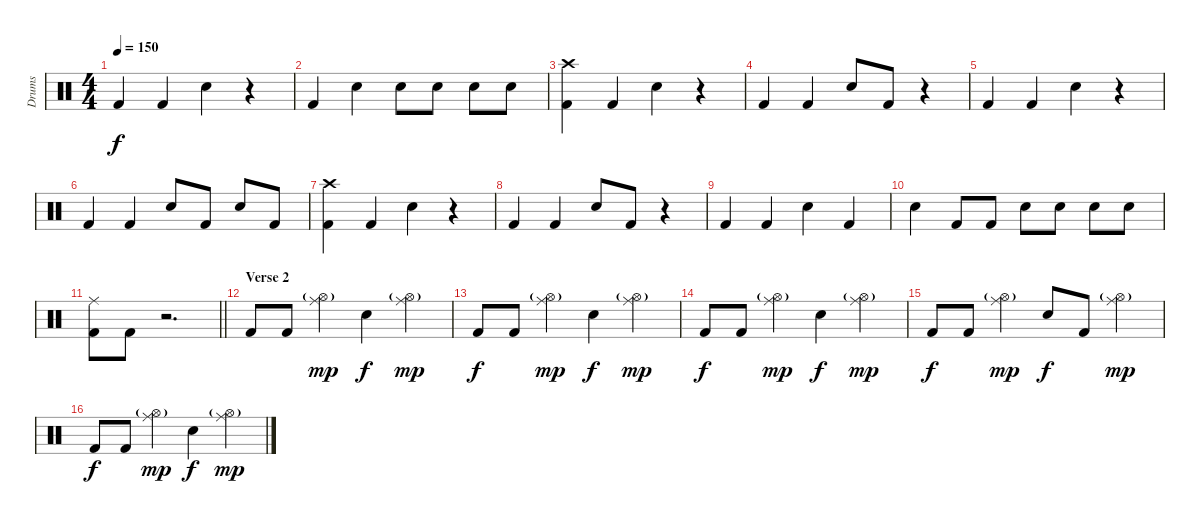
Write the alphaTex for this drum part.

\track ("Drums" "Drums") {instrument percussion bank 1}
\staff {score}
\articulation defaults
\ts (4 4)
\tempo 150
\clef neutral
\ks c "Kick (hit) 2".4{dy f} "Kick (hit) 2".4 "Snare (hit) 2".4
r.4 |
"Kick (hit) 2".4 "Snare (hit) 2".4 "Snare (hit) 2".8 "Snare (hit) 2".8 "Snare (hit) 2".8 "Snare (hit) 2".8 |
("Crash high (hit)" "Kick (hit) 2").4 "Kick (hit) 2".4 "Snare (hit) 2".4 r.4 |
"Kick (hit) 2".4 "Kick (hit) 2".4 "Snare (hit) 2".8 "Kick (hit) 2".8 r.4 |
"Kick (hit) 2".4 "Kick (hit) 2".4 "Snare (hit) 2".4 r.4 |
"Kick (hit) 2".4 "Kick (hit) 2".4 "Snare (hit) 2".8 "Kick (hit) 2".8 "Snare (hit) 2".8 "Kick (hit) 2".8 |
("Crash high (hit)" "Kick (hit) 2").4 "Kick (hit) 2".4 "Snare (hit) 2".4 r.4 |
"Kick (hit) 2".4 "Kick (hit) 2".4 "Snare (hit) 2".8 "Kick (hit) 2".8 r.4 |
"Kick (hit) 2".4 "Kick (hit) 2".4 "Snare (hit) 2".4 "Kick (hit) 2".4 |
"Snare (hit) 2".4 "Kick (hit) 2".8 "Kick (hit) 2".8 "Snare (hit) 2".8 "Snare (hit) 2".8 "Snare (hit) 2".8 "Snare (hit) 2".8 |
\barLineRight lightlight
("Ride (middle)" "Kick (hit) 2").8 "Kick (hit) 2".8 r.2{d} |
\section ("" "Verse 2")
"Kick (hit) 2".8 "Kick (hit) 2".8 ("Ride (middle)" "Hi-Hat (open)"{g}).4{dy mp} "Snare (hit) 2".4{dy f} ("Ride (middle)" "Hi-Hat (open)"{g}).4{dy mp} |
"Kick (hit) 2".8{dy f} "Kick (hit) 2".8 ("Ride (middle)" "Hi-Hat (open)"{g}).4{dy mp} "Snare (hit) 2".4{dy f} ("Ride (middle)" "Hi-Hat (open)"{g}).4{dy mp} |
"Kick (hit) 2".8{dy f} "Kick (hit) 2".8 ("Ride (middle)" "Hi-Hat (open)"{g}).4{dy mp} "Snare (hit) 2".4{dy f} ("Ride (middle)" "Hi-Hat (open)"{g}).4{dy mp} |
"Kick (hit) 2".8{dy f} "Kick (hit) 2".8 ("Ride (middle)" "Hi-Hat (open)"{g}).4{dy mp} "Snare (hit) 2".8{dy f} "Kick (hit) 2".8 ("Ride (middle)" "Hi-Hat (open)"{g}).4{dy mp} |
"Kick (hit) 2".8{dy f} "Kick (hit) 2".8 ("Ride (middle)" "Hi-Hat (open)"{g}).4{dy mp} "Snare (hit) 2".4{dy f} ("Ride (middle)" "Hi-Hat (open)"{g}).4{dy mp}
